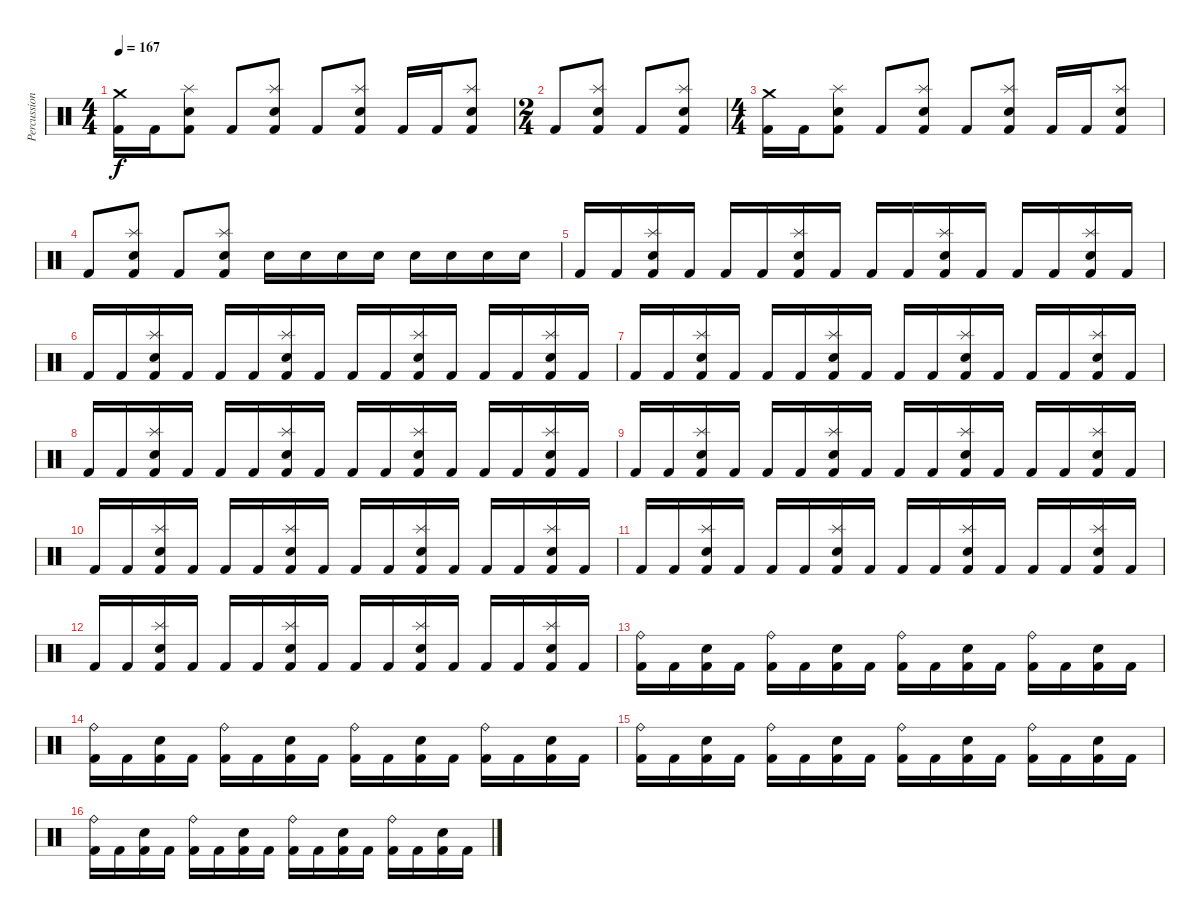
\track ("Percussion" "Percussion") {instrument percussion}
\staff {score}
\articulation defaults
\ts (4 4)
\tempo 167
\clef neutral
\ks c
("Crash medium (hit)" "Kick (hit) 2").16{dy f} "Kick (hit) 2".16 ("Splash (hit)" "Electric Snare (hit)" "Kick (hit) 2").8 "Kick (hit) 2".8 ("Splash (hit)" "Electric Snare (hit)" "Kick (hit) 2").8 "Kick (hit) 2".8 ("Splash (hit)" "Electric Snare (hit)" "Kick (hit) 2").8 "Kick (hit) 2".16 "Kick (hit) 2".16 ("Splash (hit)" "Electric Snare (hit)" "Kick (hit) 2").8 |
\ts (2 4)
"Kick (hit) 2".8 ("Splash (hit)" "Electric Snare (hit)" "Kick (hit) 2").8 "Kick (hit) 2".8 ("Splash (hit)" "Electric Snare (hit)" "Kick (hit) 2").8 |
\ts (4 4)
("Crash medium (hit)" "Kick (hit) 2").16 "Kick (hit) 2".16 ("Splash (hit)" "Electric Snare (hit)" "Kick (hit) 2").8 "Kick (hit) 2".8 ("Splash (hit)" "Electric Snare (hit)" "Kick (hit) 2").8 "Kick (hit) 2".8 ("Splash (hit)" "Electric Snare (hit)" "Kick (hit) 2").8 "Kick (hit) 2".16 "Kick (hit) 2".16 ("Splash (hit)" "Electric Snare (hit)" "Kick (hit) 2").8 |
"Kick (hit) 2".8 ("Splash (hit)" "Electric Snare (hit)" "Kick (hit) 2").8 "Kick (hit) 2".8 ("Splash (hit)" "Electric Snare (hit)" "Kick (hit) 2").8 "Electric Snare (hit)".16 "Electric Snare (hit)".16 "Electric Snare (hit)".16 "Electric Snare (hit)".16 "Electric Snare (hit)".16 "Electric Snare (hit)".16 "Electric Snare (hit)".16 "Electric Snare (hit)".16 |
"Kick (hit) 2".16 "Kick (hit) 2".16 ("Splash (hit)" "Electric Snare (hit)" "Kick (hit) 2").16 "Kick (hit) 2".16 "Kick (hit) 2".16 "Kick (hit) 2".16 ("Splash (hit)" "Electric Snare (hit)" "Kick (hit) 2").16 "Kick (hit) 2".16 "Kick (hit) 2".16 "Kick (hit) 2".16 ("Splash (hit)" "Electric Snare (hit)" "Kick (hit) 2").16 "Kick (hit) 2".16 "Kick (hit) 2".16 "Kick (hit) 2".16 ("Splash (hit)" "Electric Snare (hit)" "Kick (hit) 2").16 "Kick (hit) 2".16 |
"Kick (hit) 2".16 "Kick (hit) 2".16 ("Splash (hit)" "Electric Snare (hit)" "Kick (hit) 2").16 "Kick (hit) 2".16 "Kick (hit) 2".16 "Kick (hit) 2".16 ("Splash (hit)" "Electric Snare (hit)" "Kick (hit) 2").16 "Kick (hit) 2".16 "Kick (hit) 2".16 "Kick (hit) 2".16 ("Splash (hit)" "Electric Snare (hit)" "Kick (hit) 2").16 "Kick (hit) 2".16 "Kick (hit) 2".16 "Kick (hit) 2".16 ("Splash (hit)" "Electric Snare (hit)" "Kick (hit) 2").16 "Kick (hit) 2".16 |
"Kick (hit) 2".16 "Kick (hit) 2".16 ("Splash (hit)" "Electric Snare (hit)" "Kick (hit) 2").16 "Kick (hit) 2".16 "Kick (hit) 2".16 "Kick (hit) 2".16 ("Splash (hit)" "Electric Snare (hit)" "Kick (hit) 2").16 "Kick (hit) 2".16 "Kick (hit) 2".16 "Kick (hit) 2".16 ("Splash (hit)" "Electric Snare (hit)" "Kick (hit) 2").16 "Kick (hit) 2".16 "Kick (hit) 2".16 "Kick (hit) 2".16 ("Splash (hit)" "Electric Snare (hit)" "Kick (hit) 2").16 "Kick (hit) 2".16 |
"Kick (hit) 2".16 "Kick (hit) 2".16 ("Splash (hit)" "Electric Snare (hit)" "Kick (hit) 2").16 "Kick (hit) 2".16 "Kick (hit) 2".16 "Kick (hit) 2".16 ("Splash (hit)" "Electric Snare (hit)" "Kick (hit) 2").16 "Kick (hit) 2".16 "Kick (hit) 2".16 "Kick (hit) 2".16 ("Splash (hit)" "Electric Snare (hit)" "Kick (hit) 2").16 "Kick (hit) 2".16 "Kick (hit) 2".16 "Kick (hit) 2".16 ("Splash (hit)" "Electric Snare (hit)" "Kick (hit) 2").16 "Kick (hit) 2".16 |
"Kick (hit) 2".16 "Kick (hit) 2".16 ("Splash (hit)" "Electric Snare (hit)" "Kick (hit) 2").16 "Kick (hit) 2".16 "Kick (hit) 2".16 "Kick (hit) 2".16 ("Splash (hit)" "Electric Snare (hit)" "Kick (hit) 2").16 "Kick (hit) 2".16 "Kick (hit) 2".16 "Kick (hit) 2".16 ("Splash (hit)" "Electric Snare (hit)" "Kick (hit) 2").16 "Kick (hit) 2".16 "Kick (hit) 2".16 "Kick (hit) 2".16 ("Splash (hit)" "Electric Snare (hit)" "Kick (hit) 2").16 "Kick (hit) 2".16 |
"Kick (hit) 2".16 "Kick (hit) 2".16 ("Splash (hit)" "Electric Snare (hit)" "Kick (hit) 2").16 "Kick (hit) 2".16 "Kick (hit) 2".16 "Kick (hit) 2".16 ("Splash (hit)" "Electric Snare (hit)" "Kick (hit) 2").16 "Kick (hit) 2".16 "Kick (hit) 2".16 "Kick (hit) 2".16 ("Splash (hit)" "Electric Snare (hit)" "Kick (hit) 2").16 "Kick (hit) 2".16 "Kick (hit) 2".16 "Kick (hit) 2".16 ("Splash (hit)" "Electric Snare (hit)" "Kick (hit) 2").16 "Kick (hit) 2".16 |
"Kick (hit) 2".16 "Kick (hit) 2".16 ("Splash (hit)" "Electric Snare (hit)" "Kick (hit) 2").16 "Kick (hit) 2".16 "Kick (hit) 2".16 "Kick (hit) 2".16 ("Splash (hit)" "Electric Snare (hit)" "Kick (hit) 2").16 "Kick (hit) 2".16 "Kick (hit) 2".16 "Kick (hit) 2".16 ("Splash (hit)" "Electric Snare (hit)" "Kick (hit) 2").16 "Kick (hit) 2".16 "Kick (hit) 2".16 "Kick (hit) 2".16 ("Splash (hit)" "Electric Snare (hit)" "Kick (hit) 2").16 "Kick (hit) 2".16 |
"Kick (hit) 2".16 "Kick (hit) 2".16 ("Splash (hit)" "Electric Snare (hit)" "Kick (hit) 2").16 "Kick (hit) 2".16 "Kick (hit) 2".16 "Kick (hit) 2".16 ("Splash (hit)" "Electric Snare (hit)" "Kick (hit) 2").16 "Kick (hit) 2".16 "Kick (hit) 2".16 "Kick (hit) 2".16 ("Splash (hit)" "Electric Snare (hit)" "Kick (hit) 2").16 "Kick (hit) 2".16 "Kick (hit) 2".16 "Kick (hit) 2".16 ("Splash (hit)" "Electric Snare (hit)" "Kick (hit) 2").16 "Kick (hit) 2".16 |
("Ride (bell)" "Kick (hit) 2").16 "Kick (hit) 2".16 ("Electric Snare (hit)" "Kick (hit) 2").16 "Kick (hit) 2".16 ("Ride (bell)" "Kick (hit) 2").16 "Kick (hit) 2".16 ("Electric Snare (hit)" "Kick (hit) 2").16 "Kick (hit) 2".16 ("Ride (bell)" "Kick (hit) 2").16 "Kick (hit) 2".16 ("Electric Snare (hit)" "Kick (hit) 2").16 "Kick (hit) 2".16 ("Ride (bell)" "Kick (hit) 2").16 "Kick (hit) 2".16 ("Electric Snare (hit)" "Kick (hit) 2").16 "Kick (hit) 2".16 |
("Ride (bell)" "Kick (hit) 2").16 "Kick (hit) 2".16 ("Electric Snare (hit)" "Kick (hit) 2").16 "Kick (hit) 2".16 ("Ride (bell)" "Kick (hit) 2").16 "Kick (hit) 2".16 ("Electric Snare (hit)" "Kick (hit) 2").16 "Kick (hit) 2".16 ("Ride (bell)" "Kick (hit) 2").16 "Kick (hit) 2".16 ("Electric Snare (hit)" "Kick (hit) 2").16 "Kick (hit) 2".16 ("Ride (bell)" "Kick (hit) 2").16 "Kick (hit) 2".16 ("Electric Snare (hit)" "Kick (hit) 2").16 "Kick (hit) 2".16 |
("Ride (bell)" "Kick (hit) 2").16 "Kick (hit) 2".16 ("Electric Snare (hit)" "Kick (hit) 2").16 "Kick (hit) 2".16 ("Ride (bell)" "Kick (hit) 2").16 "Kick (hit) 2".16 ("Electric Snare (hit)" "Kick (hit) 2").16 "Kick (hit) 2".16 ("Ride (bell)" "Kick (hit) 2").16 "Kick (hit) 2".16 ("Electric Snare (hit)" "Kick (hit) 2").16 "Kick (hit) 2".16 ("Ride (bell)" "Kick (hit) 2").16 "Kick (hit) 2".16 ("Electric Snare (hit)" "Kick (hit) 2").16 "Kick (hit) 2".16 |
("Ride (bell)" "Kick (hit) 2").16 "Kick (hit) 2".16 ("Electric Snare (hit)" "Kick (hit) 2").16 "Kick (hit) 2".16 ("Ride (bell)" "Kick (hit) 2").16 "Kick (hit) 2".16 ("Electric Snare (hit)" "Kick (hit) 2").16 "Kick (hit) 2".16 ("Ride (bell)" "Kick (hit) 2").16 "Kick (hit) 2".16 ("Electric Snare (hit)" "Kick (hit) 2").16 "Kick (hit) 2".16 ("Ride (bell)" "Kick (hit) 2").16 "Kick (hit) 2".16 ("Electric Snare (hit)" "Kick (hit) 2").16 "Kick (hit) 2".16
